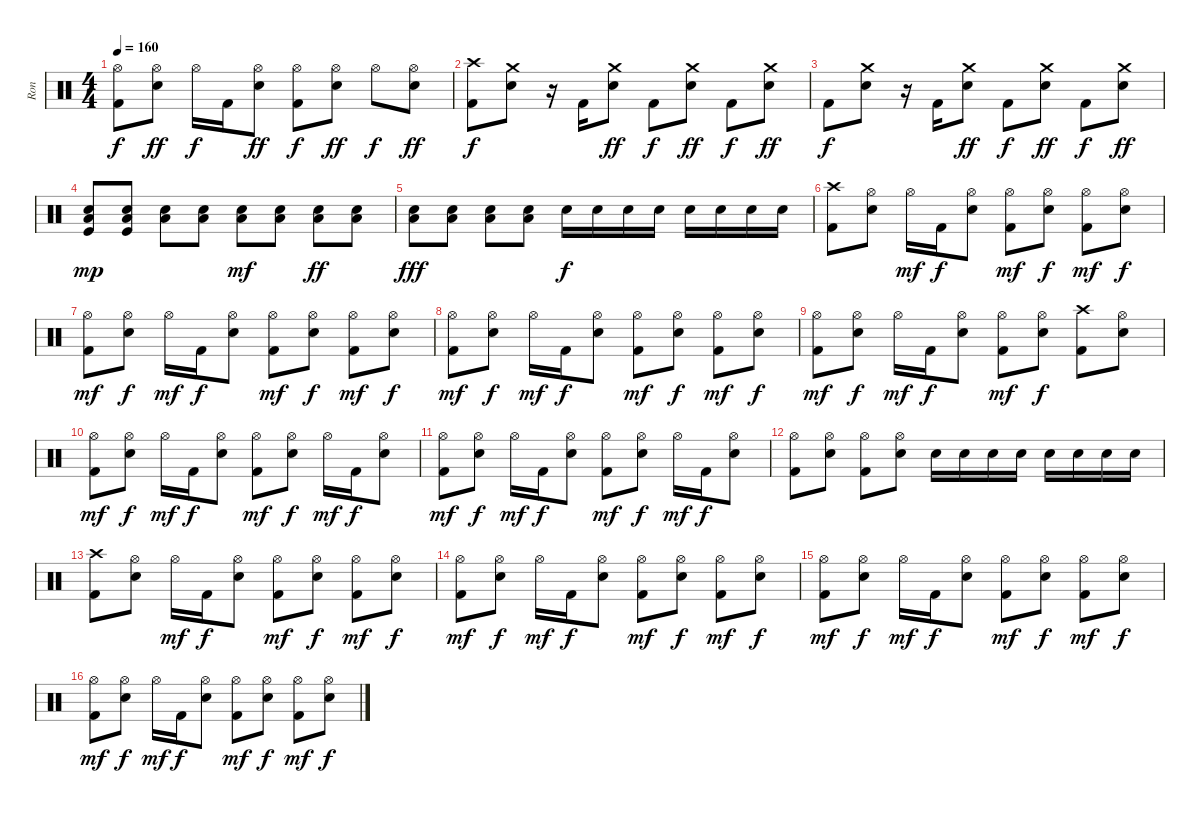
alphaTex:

\track ("Ron" "Ron") {instrument percussion}
\staff {score}
\articulation defaults
\ts (4 4)
\tempo 160
\clef neutral
\ks c
("Hi-Hat (open)" "Kick (hit) 2").8{dy f} ("Hi-Hat (open)" "Electric Snare (hit)").8{dy ff} "Hi-Hat (open)".16{dy f} "Kick (hit) 2".16 ("Hi-Hat (open)" "Electric Snare (hit)").8{dy ff} ("Hi-Hat (open)" "Kick (hit) 2").8{dy f} ("Hi-Hat (open)" "Electric Snare (hit)").8{dy ff} "Hi-Hat (open)".8{dy f} ("Hi-Hat (open)" "Electric Snare (hit)").8{dy ff} |
("Crash high (hit)" "Kick (hit) 2").8{dy f} ("Crash medium (hit)" "Electric Snare (hit)").8 r.16 "Kick (hit) 2".16 ("Crash medium (hit)" "Electric Snare (hit)").8{dy ff} "Kick (hit) 2".8{dy f} ("Crash medium (hit)" "Electric Snare (hit)").8{dy ff} "Kick (hit) 2".8{dy f} ("Crash medium (hit)" "Electric Snare (hit)").8{dy ff} |
"Kick (hit) 2".8{dy f} ("Crash medium (hit)" "Electric Snare (hit)").8 r.16 "Kick (hit) 2".16 ("Crash medium (hit)" "Electric Snare (hit)").8{dy ff} "Kick (hit) 2".8{dy f} ("Crash medium (hit)" "Electric Snare (hit)").8{dy ff} "Kick (hit) 2".8{dy f} ("Crash medium (hit)" "Electric Snare (hit)").8{dy ff} |
("Low Floor Tom (hit)" "Electric Snare (hit)" "Kick (hit)").8{dy mp} ("Low Floor Tom (hit)" "Electric Snare (hit)" "Kick (hit)").8 ("Low Floor Tom (hit)" "Electric Snare (hit)").8 ("Low Floor Tom (hit)" "Electric Snare (hit)").8 ("Low Floor Tom (hit)" "Electric Snare (hit)").8{dy mf} ("Low Floor Tom (hit)" "Electric Snare (hit)").8 ("Low Floor Tom (hit)" "Electric Snare (hit)").8{dy ff} ("Low Floor Tom (hit)" "Electric Snare (hit)").8 |
("Low Floor Tom (hit)" "Electric Snare (hit)").8{dy fff} ("Low Floor Tom (hit)" "Electric Snare (hit)").8 ("Low Floor Tom (hit)" "Electric Snare (hit)").8 ("Low Floor Tom (hit)" "Electric Snare (hit)").8 "Electric Snare (hit)".16{dy f} "Electric Snare (hit)".16 "Electric Snare (hit)".16 "Electric Snare (hit)".16 "Electric Snare (hit)".16 "Electric Snare (hit)".16 "Electric Snare (hit)".16 "Electric Snare (hit)".16 |
("Crash high (hit)" "Kick (hit) 2").8 ("Hi-Hat (open)" "Electric Snare (hit)").8 "Hi-Hat (open)".16{dy mf} "Kick (hit) 2".16{dy f} ("Hi-Hat (open)" "Electric Snare (hit)").8 ("Hi-Hat (open)" "Kick (hit) 2").8{dy mf} ("Hi-Hat (open)" "Electric Snare (hit)").8{dy f} ("Hi-Hat (open)" "Kick (hit) 2").8{dy mf} ("Hi-Hat (open)" "Electric Snare (hit)").8{dy f} |
("Hi-Hat (open)" "Kick (hit) 2").8{dy mf} ("Hi-Hat (open)" "Electric Snare (hit)").8{dy f} "Hi-Hat (open)".16{dy mf} "Kick (hit) 2".16{dy f} ("Hi-Hat (open)" "Electric Snare (hit)").8 ("Hi-Hat (open)" "Kick (hit) 2").8{dy mf} ("Hi-Hat (open)" "Electric Snare (hit)").8{dy f} ("Hi-Hat (open)" "Kick (hit) 2").8{dy mf} ("Hi-Hat (open)" "Electric Snare (hit)").8{dy f} |
("Hi-Hat (open)" "Kick (hit) 2").8{dy mf} ("Hi-Hat (open)" "Electric Snare (hit)").8{dy f} "Hi-Hat (open)".16{dy mf} "Kick (hit) 2".16{dy f} ("Hi-Hat (open)" "Electric Snare (hit)").8 ("Hi-Hat (open)" "Kick (hit) 2").8{dy mf} ("Hi-Hat (open)" "Electric Snare (hit)").8{dy f} ("Hi-Hat (open)" "Kick (hit) 2").8{dy mf} ("Hi-Hat (open)" "Electric Snare (hit)").8{dy f} |
("Hi-Hat (open)" "Kick (hit) 2").8{dy mf} ("Hi-Hat (open)" "Electric Snare (hit)").8{dy f} "Hi-Hat (open)".16{dy mf} "Kick (hit) 2".16{dy f} ("Hi-Hat (open)" "Electric Snare (hit)").8 ("Hi-Hat (open)" "Kick (hit) 2").8{dy mf} ("Hi-Hat (open)" "Electric Snare (hit)").8{dy f} ("Crash high (hit)" "Kick (hit) 2").8 ("Hi-Hat (open)" "Electric Snare (hit)").8 |
("Hi-Hat (open)" "Kick (hit) 2").8{dy mf} ("Hi-Hat (open)" "Electric Snare (hit)").8{dy f} "Hi-Hat (open)".16{dy mf} "Kick (hit) 2".16{dy f} ("Hi-Hat (open)" "Electric Snare (hit)").8 ("Hi-Hat (open)" "Kick (hit) 2").8{dy mf} ("Hi-Hat (open)" "Electric Snare (hit)").8{dy f} "Hi-Hat (open)".16{dy mf} "Kick (hit) 2".16{dy f} ("Hi-Hat (open)" "Electric Snare (hit)").8 |
("Hi-Hat (open)" "Kick (hit) 2").8{dy mf} ("Hi-Hat (open)" "Electric Snare (hit)").8{dy f} "Hi-Hat (open)".16{dy mf} "Kick (hit) 2".16{dy f} ("Hi-Hat (open)" "Electric Snare (hit)").8 ("Hi-Hat (open)" "Kick (hit) 2").8{dy mf} ("Hi-Hat (open)" "Electric Snare (hit)").8{dy f} "Hi-Hat (open)".16{dy mf} "Kick (hit) 2".16{dy f} ("Hi-Hat (open)" "Electric Snare (hit)").8 |
("Hi-Hat (open)" "Kick (hit) 2").8 ("Hi-Hat (open)" "Electric Snare (hit)").8 ("Hi-Hat (open)" "Kick (hit) 2").8 ("Hi-Hat (open)" "Electric Snare (hit)").8 "Electric Snare (hit)".16 "Electric Snare (hit)".16 "Electric Snare (hit)".16 "Electric Snare (hit)".16 "Electric Snare (hit)".16 "Electric Snare (hit)".16 "Electric Snare (hit)".16 "Electric Snare (hit)".16 |
("Crash high (hit)" "Kick (hit) 2").8 ("Hi-Hat (open)" "Electric Snare (hit)").8 "Hi-Hat (open)".16{dy mf} "Kick (hit) 2".16{dy f} ("Hi-Hat (open)" "Electric Snare (hit)").8 ("Hi-Hat (open)" "Kick (hit) 2").8{dy mf} ("Hi-Hat (open)" "Electric Snare (hit)").8{dy f} ("Hi-Hat (open)" "Kick (hit) 2").8{dy mf} ("Hi-Hat (open)" "Electric Snare (hit)").8{dy f} |
("Hi-Hat (open)" "Kick (hit) 2").8{dy mf} ("Hi-Hat (open)" "Electric Snare (hit)").8{dy f} "Hi-Hat (open)".16{dy mf} "Kick (hit) 2".16{dy f} ("Hi-Hat (open)" "Electric Snare (hit)").8 ("Hi-Hat (open)" "Kick (hit) 2").8{dy mf} ("Hi-Hat (open)" "Electric Snare (hit)").8{dy f} ("Hi-Hat (open)" "Kick (hit) 2").8{dy mf} ("Hi-Hat (open)" "Electric Snare (hit)").8{dy f} |
("Hi-Hat (open)" "Kick (hit) 2").8{dy mf} ("Hi-Hat (open)" "Electric Snare (hit)").8{dy f} "Hi-Hat (open)".16{dy mf} "Kick (hit) 2".16{dy f} ("Hi-Hat (open)" "Electric Snare (hit)").8 ("Hi-Hat (open)" "Kick (hit) 2").8{dy mf} ("Hi-Hat (open)" "Electric Snare (hit)").8{dy f} ("Hi-Hat (open)" "Kick (hit) 2").8{dy mf} ("Hi-Hat (open)" "Electric Snare (hit)").8{dy f} |
("Hi-Hat (open)" "Kick (hit) 2").8{dy mf} ("Hi-Hat (open)" "Electric Snare (hit)").8{dy f} "Hi-Hat (open)".16{dy mf} "Kick (hit) 2".16{dy f} ("Hi-Hat (open)" "Electric Snare (hit)").8 ("Hi-Hat (open)" "Kick (hit) 2").8{dy mf} ("Hi-Hat (open)" "Electric Snare (hit)").8{dy f} ("Hi-Hat (open)" "Kick (hit) 2").8{dy mf} ("Hi-Hat (open)" "Electric Snare (hit)").8{dy f}
